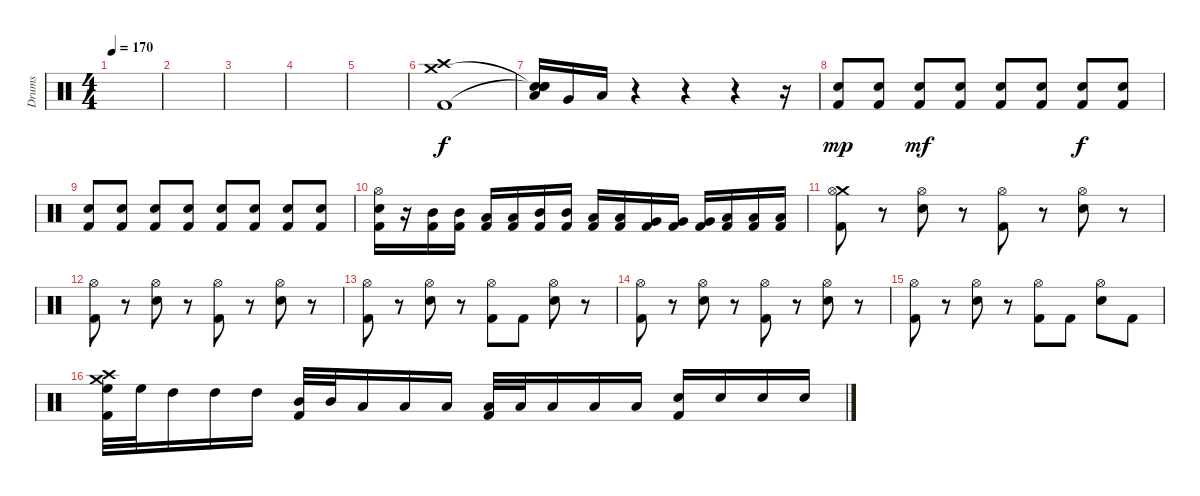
\track ("Drums" "Drums") {instrument percussion}
\staff {score}
\articulation defaults
\ts (4 4)
\tempo 170
\clef neutral
\ks c
|
|
|
|
|
("Crash high (hit)" "Crash medium (hit)" "Kick (hit) 2").1 |
("Low Tom (hit)" "Snare (hit)"{t} "Snare (hit)"{t} "Snare (hit)").16 "Very Low Tom (hit)".16 "Low Floor Tom (hit)".16 r.4 r.4 r.4 r.16 |
("Electric Snare (hit)" "Kick (hit) 2").8{dy mp} ("Electric Snare (hit)" "Kick (hit) 2").8 ("Electric Snare (hit)" "Kick (hit) 2").8{dy mf} ("Electric Snare (hit)" "Kick (hit) 2").8 ("Electric Snare (hit)" "Kick (hit) 2").8 ("Electric Snare (hit)" "Kick (hit) 2").8 ("Electric Snare (hit)" "Kick (hit) 2").8{dy f} ("Electric Snare (hit)" "Kick (hit) 2").8 |
("Electric Snare (hit)" "Kick (hit) 2").8 ("Electric Snare (hit)" "Kick (hit) 2").8 ("Electric Snare (hit)" "Kick (hit) 2").8 ("Electric Snare (hit)" "Kick (hit) 2").8 ("Electric Snare (hit)" "Kick (hit) 2").8 ("Electric Snare (hit)" "Kick (hit) 2").8 ("Electric Snare (hit)" "Kick (hit) 2").8 ("Electric Snare (hit)" "Kick (hit) 2").8 |
("Hi-Hat (open)" "Electric Snare (hit)" "Kick (hit) 2").16 r.16 ("Mid Tom (hit)" "Kick (hit) 2").16 ("Mid Tom (hit)" "Kick (hit) 2").16 ("Low Tom (hit)" "Kick (hit) 2").16 ("Low Tom (hit)" "Kick (hit) 2").16 ("Mid Tom (hit)" "Kick (hit) 2").16 ("Mid Tom (hit)" "Kick (hit) 2").16 ("Low Tom (hit)" "Kick (hit) 2").16 ("Low Tom (hit)" "Kick (hit) 2").16 ("Very Low Tom (hit)" "Kick (hit) 2").16 ("Very Low Tom (hit)" "Kick (hit) 2").16 ("Very Low Tom (hit)" "Kick (hit) 2").16 ("Low Floor Tom (hit)" "Kick (hit) 2").16 ("Low Floor Tom (hit)" "Kick (hit) 2").16 ("Low Floor Tom (hit)" "Kick (hit) 2").16 |
("Crash medium (hit)" "Hi-Hat (open)" "Kick (hit) 2").8 r.8 ("Hi-Hat (open)" "Electric Snare (hit)").8 r.8 ("Hi-Hat (open)" "Kick (hit) 2").8 r.8 ("Hi-Hat (open)" "Electric Snare (hit)").8 r.8 |
("Hi-Hat (open)" "Kick (hit) 2").8 r.8 ("Hi-Hat (open)" "Electric Snare (hit)").8 r.8 ("Hi-Hat (open)" "Kick (hit) 2").8 r.8 ("Hi-Hat (open)" "Electric Snare (hit)").8 r.8 |
("Hi-Hat (open)" "Kick (hit) 2").8 r.8 ("Hi-Hat (open)" "Electric Snare (hit)").8 r.8 ("Hi-Hat (open)" "Kick (hit) 2").8 "Kick (hit) 2".8 ("Hi-Hat (open)" "Electric Snare (hit)").8 r.8 |
("Hi-Hat (open)" "Kick (hit) 2").8 r.8 ("Hi-Hat (open)" "Electric Snare (hit)").8 r.8 ("Hi-Hat (open)" "Kick (hit) 2").8 r.8 ("Hi-Hat (open)" "Electric Snare (hit)").8 r.8 |
("Hi-Hat (open)" "Kick (hit) 2").8 r.8 ("Hi-Hat (open)" "Electric Snare (hit)").8 r.8 ("Hi-Hat (open)" "Kick (hit) 2").8 "Kick (hit) 2".8 ("Hi-Hat (open)" "Electric Snare (hit)").8 "Kick (hit) 2".8 |
("Crash high (hit)" "Crash medium (hit)" "High Floor Tom (hit)" "Kick (hit) 2").32 "High Floor Tom (hit)".32 "High Tom (hit)".16 "High Tom (hit)".16 "High Tom (hit)".16 ("Mid Tom (hit)" "Kick (hit) 2").32 "Mid Tom (hit)".32 "Low Tom (hit)".16 "Low Tom (hit)".16 "Low Tom (hit)".16 ("Low Tom (hit)" "Kick (hit) 2").32 "Low Tom (hit)".32 "Low Floor Tom (hit)".16 "Low Floor Tom (hit)".16 "Low Floor Tom (hit)".16 ("Electric Snare (hit)" "Kick (hit) 2").16 "Electric Snare (hit)".16 "Electric Snare (hit)".16 "Electric Snare (hit)".16
